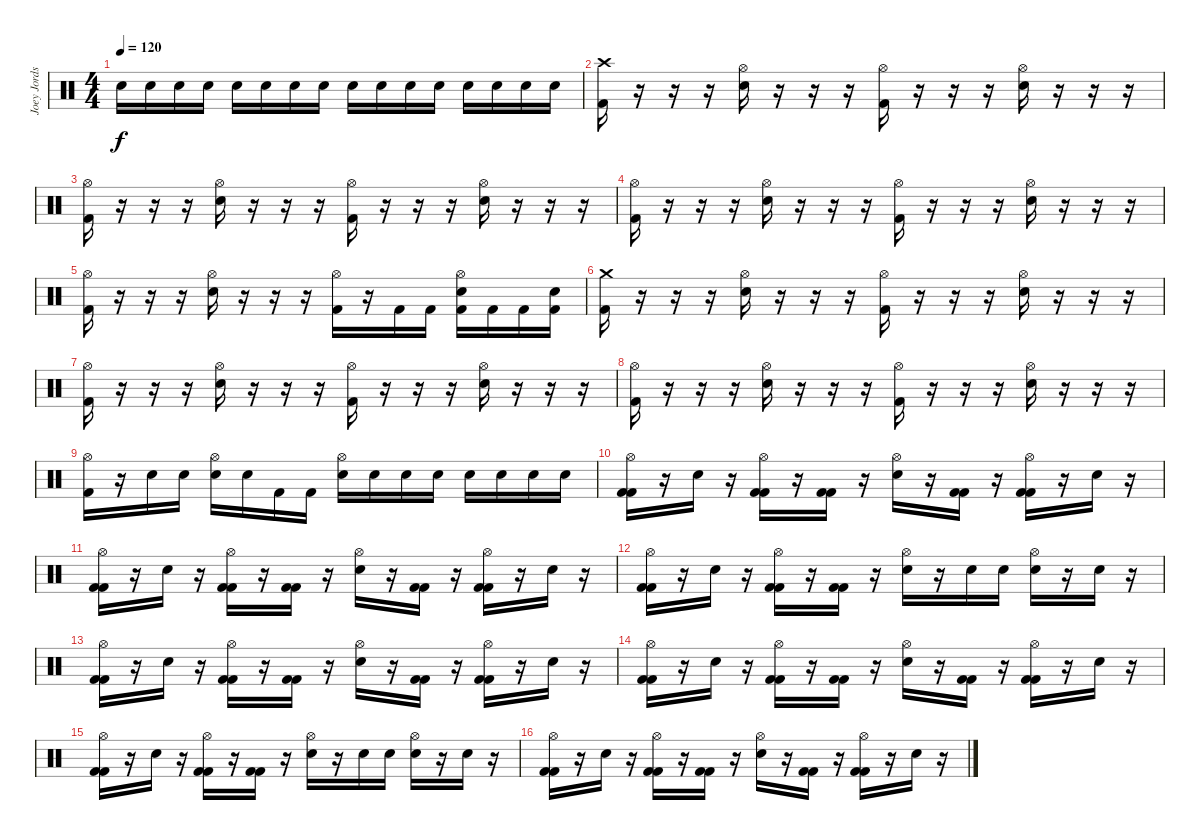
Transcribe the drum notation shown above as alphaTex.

\track ("Joey Jordson" "Joey Jords") {instrument percussion}
\staff {score}
\articulation defaults
\ts (4 4)
\tempo 120
\clef neutral
\ks c "Electric Snare (hit)".16{dy f} "Electric Snare (hit)".16 "Electric Snare (hit)".16 "Electric Snare (hit)".16 "Electric Snare (hit)".16 "Electric Snare (hit)".16 "Electric Snare (hit)".16 "Electric Snare (hit)".16 "Electric Snare (hit)".16 "Electric Snare (hit)".16 "Electric Snare (hit)".16 "Electric Snare (hit)".16 "Electric Snare (hit)".16 "Electric Snare (hit)".16 "Electric Snare (hit)".16 "Electric Snare (hit)".16
|
("Crash high (hit)" "Kick (hit) 2").16 r.16 r.16 r.16 ("Hi-Hat (open)" "Electric Snare (hit)").16 r.16 r.16 r.16 ("Hi-Hat (open)" "Kick (hit) 2").16 r.16 r.16 r.16 ("Hi-Hat (open)" "Electric Snare (hit)").16 r.16 r.16 r.16 |
("Hi-Hat (open)" "Kick (hit) 2").16 r.16 r.16 r.16 ("Hi-Hat (open)" "Electric Snare (hit)").16 r.16 r.16 r.16 ("Hi-Hat (open)" "Kick (hit) 2").16 r.16 r.16 r.16 ("Hi-Hat (open)" "Electric Snare (hit)").16 r.16 r.16 r.16 |
("Hi-Hat (open)" "Kick (hit) 2").16 r.16 r.16 r.16 ("Hi-Hat (open)" "Electric Snare (hit)").16 r.16 r.16 r.16 ("Hi-Hat (open)" "Kick (hit) 2").16 r.16 r.16 r.16 ("Hi-Hat (open)" "Electric Snare (hit)").16 r.16 r.16 r.16 |
("Hi-Hat (open)" "Kick (hit) 2").16 r.16 r.16 r.16 ("Hi-Hat (open)" "Electric Snare (hit)").16 r.16 r.16 r.16 ("Hi-Hat (open)" "Kick (hit) 2").16 r.16 "Kick (hit) 2".16 "Kick (hit) 2".16 ("Hi-Hat (open)" "Electric Snare (hit)" "Kick (hit) 2").16 "Kick (hit) 2".16 "Kick (hit) 2".16 ("Electric Snare (hit)" "Kick (hit) 2").16 |
("Crash medium (hit)" "Kick (hit) 2").16 r.16 r.16 r.16 ("Hi-Hat (open)" "Electric Snare (hit)").16 r.16 r.16 r.16 ("Hi-Hat (open)" "Kick (hit) 2").16 r.16 r.16 r.16 ("Hi-Hat (open)" "Electric Snare (hit)").16 r.16 r.16 r.16 |
("Hi-Hat (open)" "Kick (hit) 2").16 r.16 r.16 r.16 ("Hi-Hat (open)" "Electric Snare (hit)").16 r.16 r.16 r.16 ("Hi-Hat (open)" "Kick (hit) 2").16 r.16 r.16 r.16 ("Hi-Hat (open)" "Electric Snare (hit)").16 r.16 r.16 r.16 |
("Hi-Hat (open)" "Kick (hit) 2").16 r.16 r.16 r.16 ("Hi-Hat (open)" "Electric Snare (hit)").16 r.16 r.16 r.16 ("Hi-Hat (open)" "Kick (hit) 2").16 r.16 r.16 r.16 ("Hi-Hat (open)" "Electric Snare (hit)").16 r.16 r.16 r.16 |
("Hi-Hat (open)" "Kick (hit) 2").16 r.16 "Electric Snare (hit)".16 "Electric Snare (hit)".16 ("Hi-Hat (open)" "Electric Snare (hit)").16 "Electric Snare (hit)".16 "Kick (hit) 2".16 "Kick (hit) 2".16 ("Hi-Hat (open)" "Electric Snare (hit)").16 "Electric Snare (hit)".16 "Electric Snare (hit)".16 "Electric Snare (hit)".16 "Electric Snare (hit)".16 "Electric Snare (hit)".16 "Electric Snare (hit)".16 "Electric Snare (hit)".16 |
("Hi-Hat (open)" "Kick (hit) 2" "Kick (hit) 2").16 r.16 "Electric Snare (hit)".16 r.16 ("Hi-Hat (open)" "Kick (hit) 2" "Kick (hit) 2").16 r.16 ("Kick (hit) 2" "Kick (hit) 2").16 r.16 ("Hi-Hat (open)" "Electric Snare (hit)").16 r.16 ("Kick (hit) 2" "Kick (hit) 2").16 r.16 ("Hi-Hat (open)" "Kick (hit) 2" "Kick (hit) 2").16 r.16 "Electric Snare (hit)".16 r.16 |
("Hi-Hat (open)" "Kick (hit) 2" "Kick (hit) 2").16 r.16 "Electric Snare (hit)".16 r.16 ("Hi-Hat (open)" "Kick (hit) 2" "Kick (hit) 2").16 r.16 ("Kick (hit) 2" "Kick (hit) 2").16 r.16 ("Hi-Hat (open)" "Electric Snare (hit)").16 r.16 ("Kick (hit) 2" "Kick (hit) 2").16 r.16 ("Hi-Hat (open)" "Kick (hit) 2" "Kick (hit) 2").16 r.16 "Electric Snare (hit)".16 r.16 |
("Hi-Hat (open)" "Kick (hit) 2" "Kick (hit) 2").16 r.16 "Electric Snare (hit)".16 r.16 ("Hi-Hat (open)" "Kick (hit) 2" "Kick (hit) 2").16 r.16 ("Kick (hit) 2" "Kick (hit) 2").16 r.16 ("Hi-Hat (open)" "Electric Snare (hit)").16 r.16 "Electric Snare (hit)".16 "Electric Snare (hit)".16 ("Hi-Hat (open)" "Electric Snare (hit)").16 r.16 "Electric Snare (hit)".16 r.16 |
("Hi-Hat (open)" "Kick (hit) 2" "Kick (hit) 2").16 r.16 "Electric Snare (hit)".16 r.16 ("Hi-Hat (open)" "Kick (hit) 2" "Kick (hit) 2").16 r.16 ("Kick (hit) 2" "Kick (hit) 2").16 r.16 ("Hi-Hat (open)" "Electric Snare (hit)").16 r.16 ("Kick (hit) 2" "Kick (hit) 2").16 r.16 ("Hi-Hat (open)" "Kick (hit) 2" "Kick (hit) 2").16 r.16 "Electric Snare (hit)".16 r.16 |
("Hi-Hat (open)" "Kick (hit) 2" "Kick (hit) 2").16 r.16 "Electric Snare (hit)".16 r.16 ("Hi-Hat (open)" "Kick (hit) 2" "Kick (hit) 2").16 r.16 ("Kick (hit) 2" "Kick (hit) 2").16 r.16 ("Hi-Hat (open)" "Electric Snare (hit)").16 r.16 ("Kick (hit) 2" "Kick (hit) 2").16 r.16 ("Hi-Hat (open)" "Kick (hit) 2" "Kick (hit) 2").16 r.16 "Electric Snare (hit)".16 r.16 |
("Hi-Hat (open)" "Kick (hit) 2" "Kick (hit) 2").16 r.16 "Electric Snare (hit)".16 r.16 ("Hi-Hat (open)" "Kick (hit) 2" "Kick (hit) 2").16 r.16 ("Kick (hit) 2" "Kick (hit) 2").16 r.16 ("Hi-Hat (open)" "Electric Snare (hit)").16 r.16 "Electric Snare (hit)".16 "Electric Snare (hit)".16 ("Hi-Hat (open)" "Electric Snare (hit)").16 r.16 "Electric Snare (hit)".16 r.16 |
("Hi-Hat (open)" "Kick (hit) 2" "Kick (hit) 2").16 r.16 "Electric Snare (hit)".16 r.16 ("Hi-Hat (open)" "Kick (hit) 2" "Kick (hit) 2").16 r.16 ("Kick (hit) 2" "Kick (hit) 2").16 r.16 ("Hi-Hat (open)" "Electric Snare (hit)").16 r.16 ("Kick (hit) 2" "Kick (hit) 2").16 r.16 ("Hi-Hat (open)" "Kick (hit) 2" "Kick (hit) 2").16 r.16 "Electric Snare (hit)".16 r.16
